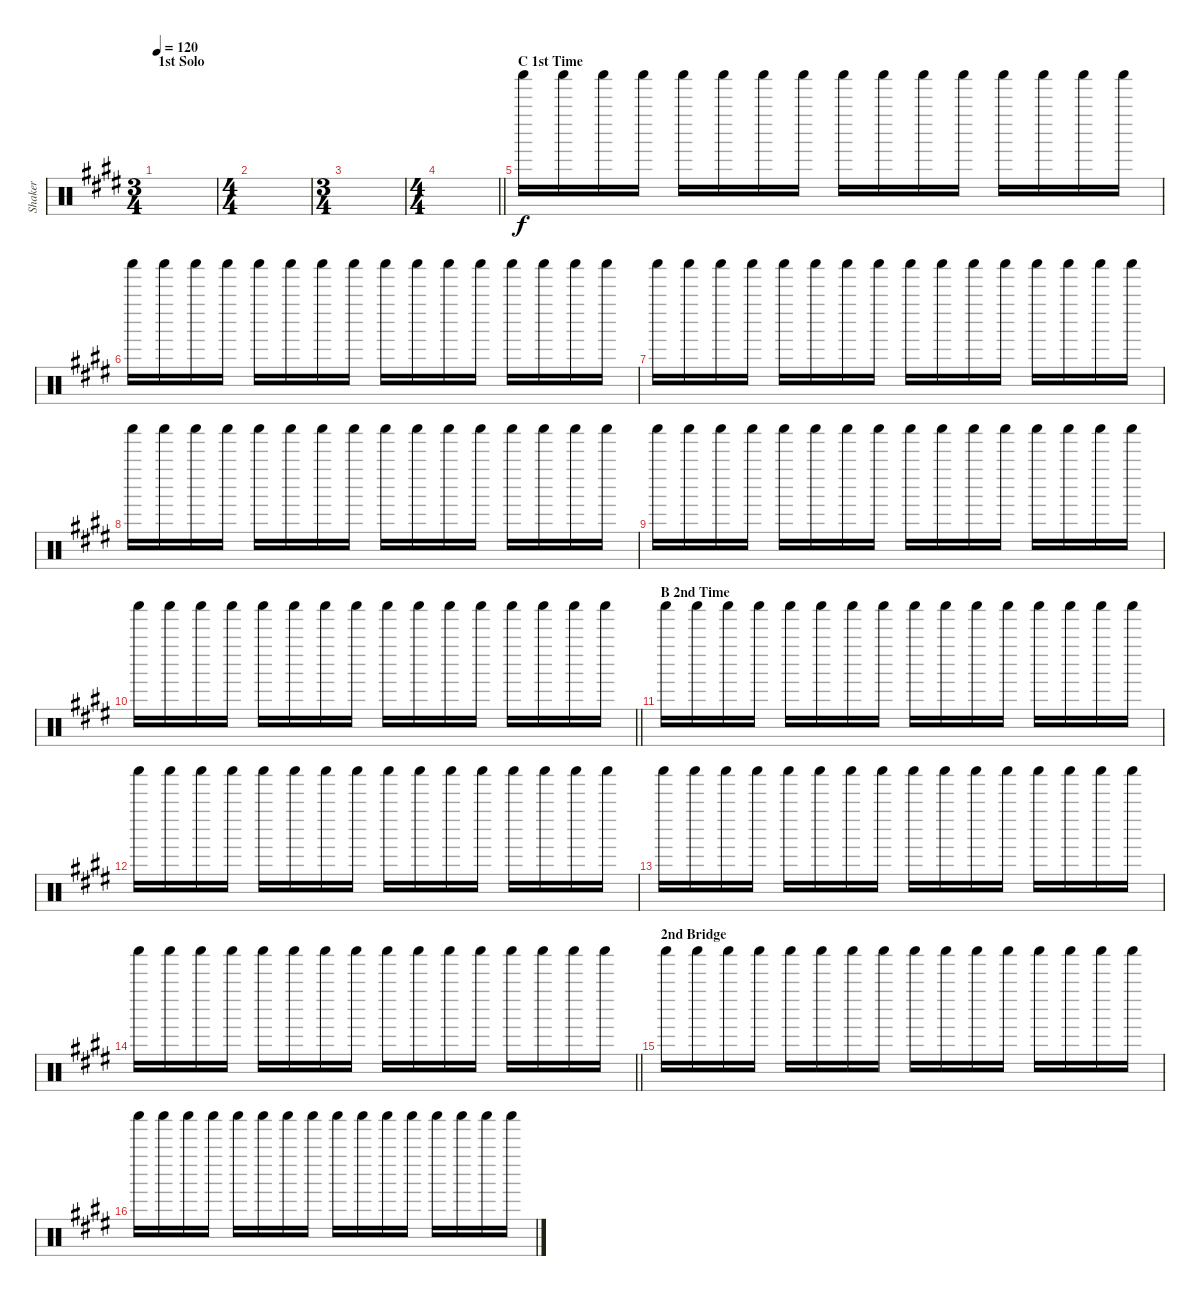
\track ("Shaker" "Shaker") {instrument percussion}
\staff {score}
\articulation defaults
\ts (3 4)
\section ("" "1st Solo")
\tempo 120
\clef neutral
\ks e
|
\ts (4 4)
|
\ts (3 4)
|
\ts (4 4)
\barLineRight lightlight
|
\section ("" "C 1st Time")
"Shaker (hit)".16 "Shaker (hit)".16 "Shaker (hit)".16 "Shaker (hit)".16 "Shaker (hit)".16 "Shaker (hit)".16 "Shaker (hit)".16 "Shaker (hit)".16 "Shaker (hit)".16 "Shaker (hit)".16 "Shaker (hit)".16 "Shaker (hit)".16 "Shaker (hit)".16 "Shaker (hit)".16 "Shaker (hit)".16 "Shaker (hit)".16 |
"Shaker (hit)".16 "Shaker (hit)".16 "Shaker (hit)".16 "Shaker (hit)".16 "Shaker (hit)".16 "Shaker (hit)".16 "Shaker (hit)".16 "Shaker (hit)".16 "Shaker (hit)".16 "Shaker (hit)".16 "Shaker (hit)".16 "Shaker (hit)".16 "Shaker (hit)".16 "Shaker (hit)".16 "Shaker (hit)".16 "Shaker (hit)".16 |
"Shaker (hit)".16 "Shaker (hit)".16 "Shaker (hit)".16 "Shaker (hit)".16 "Shaker (hit)".16 "Shaker (hit)".16 "Shaker (hit)".16 "Shaker (hit)".16 "Shaker (hit)".16 "Shaker (hit)".16 "Shaker (hit)".16 "Shaker (hit)".16 "Shaker (hit)".16 "Shaker (hit)".16 "Shaker (hit)".16 "Shaker (hit)".16 |
"Shaker (hit)".16 "Shaker (hit)".16 "Shaker (hit)".16 "Shaker (hit)".16 "Shaker (hit)".16 "Shaker (hit)".16 "Shaker (hit)".16 "Shaker (hit)".16 "Shaker (hit)".16 "Shaker (hit)".16 "Shaker (hit)".16 "Shaker (hit)".16 "Shaker (hit)".16 "Shaker (hit)".16 "Shaker (hit)".16 "Shaker (hit)".16 |
"Shaker (hit)".16 "Shaker (hit)".16 "Shaker (hit)".16 "Shaker (hit)".16 "Shaker (hit)".16 "Shaker (hit)".16 "Shaker (hit)".16 "Shaker (hit)".16 "Shaker (hit)".16 "Shaker (hit)".16 "Shaker (hit)".16 "Shaker (hit)".16 "Shaker (hit)".16 "Shaker (hit)".16 "Shaker (hit)".16 "Shaker (hit)".16 |
\barLineRight lightlight "Shaker (hit)".16 "Shaker (hit)".16 "Shaker (hit)".16 "Shaker (hit)".16 "Shaker (hit)".16 "Shaker (hit)".16 "Shaker (hit)".16 "Shaker (hit)".16 "Shaker (hit)".16 "Shaker (hit)".16 "Shaker (hit)".16 "Shaker (hit)".16 "Shaker (hit)".16 "Shaker (hit)".16 "Shaker (hit)".16 "Shaker (hit)".16
|
\section ("" "B 2nd Time")
"Shaker (hit)".16 "Shaker (hit)".16 "Shaker (hit)".16 "Shaker (hit)".16 "Shaker (hit)".16 "Shaker (hit)".16 "Shaker (hit)".16 "Shaker (hit)".16 "Shaker (hit)".16 "Shaker (hit)".16 "Shaker (hit)".16 "Shaker (hit)".16 "Shaker (hit)".16 "Shaker (hit)".16 "Shaker (hit)".16 "Shaker (hit)".16 |
"Shaker (hit)".16 "Shaker (hit)".16 "Shaker (hit)".16 "Shaker (hit)".16 "Shaker (hit)".16 "Shaker (hit)".16 "Shaker (hit)".16 "Shaker (hit)".16 "Shaker (hit)".16 "Shaker (hit)".16 "Shaker (hit)".16 "Shaker (hit)".16 "Shaker (hit)".16 "Shaker (hit)".16 "Shaker (hit)".16 "Shaker (hit)".16 |
"Shaker (hit)".16 "Shaker (hit)".16 "Shaker (hit)".16 "Shaker (hit)".16 "Shaker (hit)".16 "Shaker (hit)".16 "Shaker (hit)".16 "Shaker (hit)".16 "Shaker (hit)".16 "Shaker (hit)".16 "Shaker (hit)".16 "Shaker (hit)".16 "Shaker (hit)".16 "Shaker (hit)".16 "Shaker (hit)".16 "Shaker (hit)".16 |
\barLineRight lightlight "Shaker (hit)".16 "Shaker (hit)".16 "Shaker (hit)".16 "Shaker (hit)".16 "Shaker (hit)".16 "Shaker (hit)".16 "Shaker (hit)".16 "Shaker (hit)".16 "Shaker (hit)".16 "Shaker (hit)".16 "Shaker (hit)".16 "Shaker (hit)".16 "Shaker (hit)".16 "Shaker (hit)".16 "Shaker (hit)".16 "Shaker (hit)".16
|
\section ("" "2nd Bridge")
"Shaker (hit)".16 "Shaker (hit)".16 "Shaker (hit)".16 "Shaker (hit)".16 "Shaker (hit)".16 "Shaker (hit)".16 "Shaker (hit)".16 "Shaker (hit)".16 "Shaker (hit)".16 "Shaker (hit)".16 "Shaker (hit)".16 "Shaker (hit)".16 "Shaker (hit)".16 "Shaker (hit)".16 "Shaker (hit)".16 "Shaker (hit)".16 |
"Shaker (hit)".16 "Shaker (hit)".16 "Shaker (hit)".16 "Shaker (hit)".16 "Shaker (hit)".16 "Shaker (hit)".16 "Shaker (hit)".16 "Shaker (hit)".16 "Shaker (hit)".16 "Shaker (hit)".16 "Shaker (hit)".16 "Shaker (hit)".16 "Shaker (hit)".16 "Shaker (hit)".16 "Shaker (hit)".16 "Shaker (hit)".16
